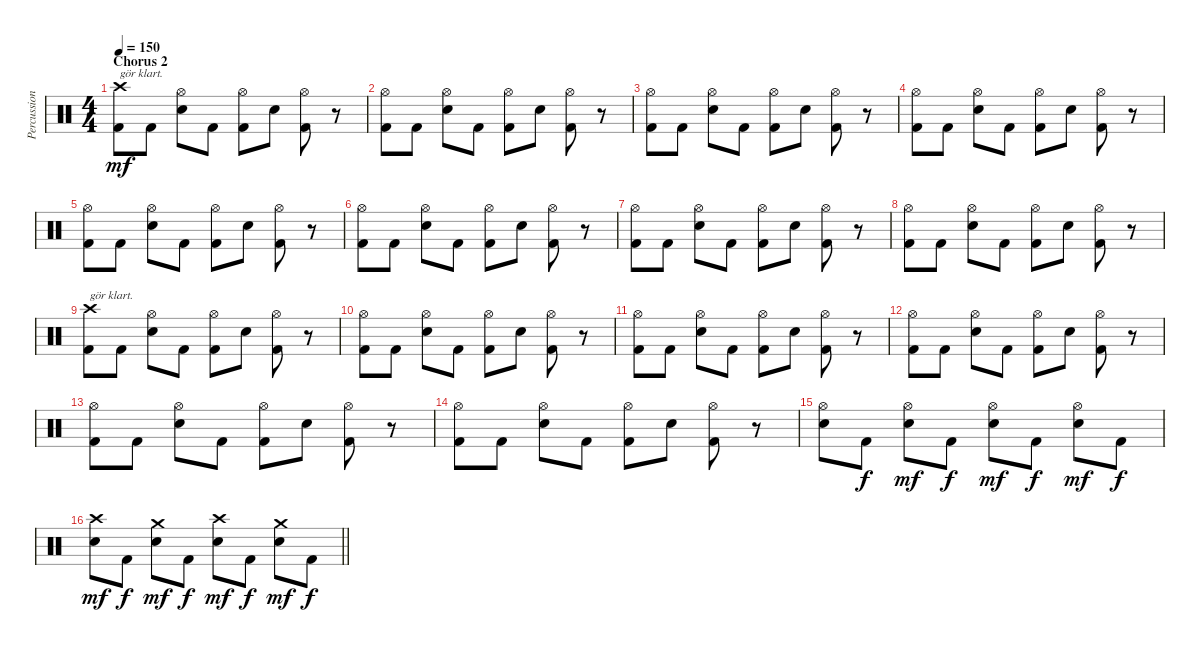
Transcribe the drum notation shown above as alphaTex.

\track ("Percussion" "Percussion") {instrument percussion}
\staff {score}
\articulation defaults
\ts (4 4)
\section ("" "Chorus 2")
\tempo 150
\clef neutral
\ks c
("Crash high (hit)" "Kick (hit) 2").8{txt "gör klart." dy mf} "Kick (hit) 2".8 ("Hi-Hat (open)" "Electric Snare (hit)").8 "Kick (hit) 2".8 ("Hi-Hat (open)" "Kick (hit) 2").8 "Electric Snare (hit)".8 ("Hi-Hat (open)" "Kick (hit) 2").8 r.8 |
("Hi-Hat (open)" "Kick (hit) 2").8 "Kick (hit) 2".8 ("Hi-Hat (open)" "Electric Snare (hit)").8 "Kick (hit) 2".8 ("Hi-Hat (open)" "Kick (hit) 2").8 "Electric Snare (hit)".8 ("Hi-Hat (open)" "Kick (hit) 2").8 r.8 |
("Hi-Hat (open)" "Kick (hit) 2").8 "Kick (hit) 2".8 ("Hi-Hat (open)" "Electric Snare (hit)").8 "Kick (hit) 2".8 ("Hi-Hat (open)" "Kick (hit) 2").8 "Electric Snare (hit)".8 ("Hi-Hat (open)" "Kick (hit) 2").8 r.8 |
("Hi-Hat (open)" "Kick (hit) 2").8 "Kick (hit) 2".8 ("Hi-Hat (open)" "Electric Snare (hit)").8 "Kick (hit) 2".8 ("Hi-Hat (open)" "Kick (hit) 2").8 "Electric Snare (hit)".8 ("Hi-Hat (open)" "Kick (hit) 2").8 r.8 |
("Hi-Hat (open)" "Kick (hit) 2").8 "Kick (hit) 2".8 ("Hi-Hat (open)" "Electric Snare (hit)").8 "Kick (hit) 2".8 ("Hi-Hat (open)" "Kick (hit) 2").8 "Electric Snare (hit)".8 ("Hi-Hat (open)" "Kick (hit) 2").8 r.8 |
("Hi-Hat (open)" "Kick (hit) 2").8 "Kick (hit) 2".8 ("Hi-Hat (open)" "Electric Snare (hit)").8 "Kick (hit) 2".8 ("Hi-Hat (open)" "Kick (hit) 2").8 "Electric Snare (hit)".8 ("Hi-Hat (open)" "Kick (hit) 2").8 r.8 |
("Hi-Hat (open)" "Kick (hit) 2").8 "Kick (hit) 2".8 ("Hi-Hat (open)" "Electric Snare (hit)").8 "Kick (hit) 2".8 ("Hi-Hat (open)" "Kick (hit) 2").8 "Electric Snare (hit)".8 ("Hi-Hat (open)" "Kick (hit) 2").8 r.8 |
("Hi-Hat (open)" "Kick (hit) 2").8 "Kick (hit) 2".8 ("Hi-Hat (open)" "Electric Snare (hit)").8 "Kick (hit) 2".8 ("Hi-Hat (open)" "Kick (hit) 2").8 "Electric Snare (hit)".8 ("Hi-Hat (open)" "Kick (hit) 2").8 r.8 |
("Crash high (hit)" "Kick (hit) 2").8{txt "gör klart."} "Kick (hit) 2".8 ("Hi-Hat (open)" "Electric Snare (hit)").8 "Kick (hit) 2".8 ("Hi-Hat (open)" "Kick (hit) 2").8 "Electric Snare (hit)".8 ("Hi-Hat (open)" "Kick (hit) 2").8 r.8 |
("Hi-Hat (open)" "Kick (hit) 2").8 "Kick (hit) 2".8 ("Hi-Hat (open)" "Electric Snare (hit)").8 "Kick (hit) 2".8 ("Hi-Hat (open)" "Kick (hit) 2").8 "Electric Snare (hit)".8 ("Hi-Hat (open)" "Kick (hit) 2").8 r.8 |
("Hi-Hat (open)" "Kick (hit) 2").8 "Kick (hit) 2".8 ("Hi-Hat (open)" "Electric Snare (hit)").8 "Kick (hit) 2".8 ("Hi-Hat (open)" "Kick (hit) 2").8 "Electric Snare (hit)".8 ("Hi-Hat (open)" "Kick (hit) 2").8 r.8 |
("Hi-Hat (open)" "Kick (hit) 2").8 "Kick (hit) 2".8 ("Hi-Hat (open)" "Electric Snare (hit)").8 "Kick (hit) 2".8 ("Hi-Hat (open)" "Kick (hit) 2").8 "Electric Snare (hit)".8 ("Hi-Hat (open)" "Kick (hit) 2").8 r.8 |
("Hi-Hat (open)" "Kick (hit) 2").8 "Kick (hit) 2".8 ("Hi-Hat (open)" "Electric Snare (hit)").8 "Kick (hit) 2".8 ("Hi-Hat (open)" "Kick (hit) 2").8 "Electric Snare (hit)".8 ("Hi-Hat (open)" "Kick (hit) 2").8 r.8 |
("Hi-Hat (open)" "Kick (hit) 2").8 "Kick (hit) 2".8 ("Hi-Hat (open)" "Electric Snare (hit)").8 "Kick (hit) 2".8 ("Hi-Hat (open)" "Kick (hit) 2").8 "Electric Snare (hit)".8 ("Hi-Hat (open)" "Kick (hit) 2").8 r.8 |
("Hi-Hat (open)" "Snare (hit) 2").8 "Kick (hit) 2".8{dy f} ("Hi-Hat (open)" "Snare (hit) 2").8{dy mf} "Kick (hit) 2".8{dy f} ("Hi-Hat (open)" "Snare (hit) 2").8{dy mf} "Kick (hit) 2".8{dy f} ("Hi-Hat (open)" "Snare (hit) 2").8{dy mf} "Kick (hit) 2".8{dy f} |
\barLineRight lightlight
("Crash high (hit)" "Snare (hit) 2").8{dy mf} "Kick (hit) 2".8{dy f} ("Crash medium (hit)" "Snare (hit) 2").8{dy mf} "Kick (hit) 2".8{dy f} ("Crash high (hit)" "Snare (hit) 2").8{dy mf} "Kick (hit) 2".8{dy f} ("Crash medium (hit)" "Snare (hit) 2").8{dy mf} "Kick (hit) 2".8{dy f}
